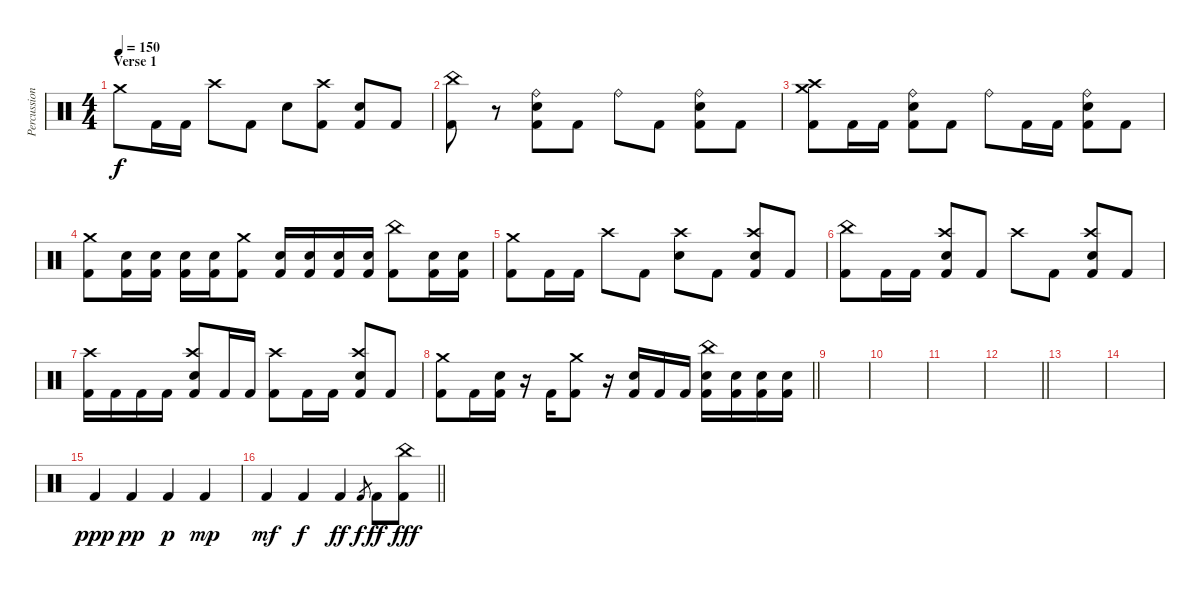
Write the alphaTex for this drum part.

\track ("Percussion" "Percussion") {instrument percussion}
\staff {score}
\articulation defaults
\ts (4 4)
\section ("" "Verse 1")
\tempo 150
\clef neutral
\ks c "Crash medium (hit)".8{dy f} "Kick (hit) 2".16 "Kick (hit) 2".16 "Crash high (hit)".8 "Kick (hit) 2".8 "Electric Snare (hit)".8
("Crash high (hit)" "Kick (hit) 2").8 ("Electric Snare (hit)" "Kick (hit) 2").8 "Kick (hit) 2".8 |
("China (hit)" "Kick (hit) 2").8 r.8 ("Ride (bell)" "Electric Snare (hit)" "Kick (hit) 2").8 "Kick (hit) 2".8 "Ride (bell)".8 "Kick (hit) 2".8 ("Ride (bell)" "Electric Snare (hit)" "Kick (hit) 2").8 "Kick (hit) 2".8 |
("Crash medium (hit)" "Crash high (hit)" "Kick (hit) 2").8 "Kick (hit) 2".16 "Kick (hit) 2".16 ("Ride (bell)" "Electric Snare (hit)" "Kick (hit) 2").8 "Kick (hit) 2".8 "Ride (bell)".8 "Kick (hit) 2".16 "Kick (hit) 2".16 ("Ride (bell)" "Electric Snare (hit)" "Kick (hit) 2").8 "Kick (hit) 2".8 |
("Crash medium (hit)" "Kick (hit) 2").8 ("Electric Snare (hit)" "Kick (hit) 2").16 ("Electric Snare (hit)" "Kick (hit) 2").16 ("Electric Snare (hit)" "Kick (hit) 2").16 ("Electric Snare (hit)" "Kick (hit) 2").16 ("Crash medium (hit)" "Kick (hit) 2").8 ("Electric Snare (hit)" "Kick (hit) 2").16 ("Electric Snare (hit)" "Kick (hit) 2").16 ("Electric Snare (hit)" "Kick (hit) 2").16 ("Electric Snare (hit)" "Kick (hit) 2").16 ("China (hit)" "Kick (hit) 2").8 ("Electric Snare (hit)" "Kick (hit) 2").16 ("Electric Snare (hit)" "Kick (hit) 2").16 |
("Crash medium (hit)" "Kick (hit) 2").8 "Kick (hit) 2".16 "Kick (hit) 2".16 "Crash high (hit)".8 "Kick (hit) 2".8 ("Crash high (hit)" "Electric Snare (hit)").8 "Kick (hit) 2".8 ("Crash high (hit)" "Electric Snare (hit)" "Kick (hit) 2").8 "Kick (hit) 2".8 |
("China (hit)" "Kick (hit) 2").8 "Kick (hit) 2".16 "Kick (hit) 2".16 ("Crash high (hit)" "Electric Snare (hit)" "Kick (hit) 2").8 "Kick (hit) 2".8 "Crash high (hit)".8 "Kick (hit) 2".8 ("Crash high (hit)" "Electric Snare (hit)" "Kick (hit) 2").8 "Kick (hit) 2".8 |
("Crash high (hit)" "Kick (hit) 2").16 "Kick (hit) 2".16 "Kick (hit) 2".16 "Kick (hit) 2".16 ("Crash high (hit)" "Electric Snare (hit)" "Kick (hit) 2").8 "Kick (hit) 2".16 "Kick (hit) 2".16 ("Crash high (hit)" "Kick (hit) 2").8 "Kick (hit) 2".16 "Kick (hit) 2".16 ("Crash high (hit)" "Electric Snare (hit)" "Kick (hit) 2").8 "Kick (hit) 2".8 |
\barLineRight lightlight
("Crash medium (hit)" "Kick (hit) 2").8 "Kick (hit) 2".16 ("Electric Snare (hit)" "Kick (hit) 2").16 r.16 "Kick (hit) 2".16 ("Crash medium (hit)" "Kick (hit) 2").8 r.16 ("Electric Snare (hit)" "Kick (hit) 2").16 "Kick (hit) 2".16 "Kick (hit) 2".16 ("China (hit)" "Electric Snare (hit)" "Kick (hit) 2").16 ("Electric Snare (hit)" "Kick (hit) 2").16 ("Electric Snare (hit)" "Kick (hit) 2").16 ("Electric Snare (hit)" "Kick (hit) 2").16 |
|
|
|
\barLineRight lightlight
|
|
|
"Kick (hit) 2".4{dy ppp} "Kick (hit) 2".4{dy pp} "Kick (hit) 2".4{dy p} "Kick (hit) 2".4{dy mp} |
\barLineRight lightlight "Kick (hit) 2".4{dy mf} "Kick (hit) 2".4{dy f} "Kick (hit) 2".4{dy ff} "Kick (hit) 2".8{gr dy f} "Kick (hit) 2".8{dy ff}
("China (hit)" "Kick (hit) 2").8{dy fff}
